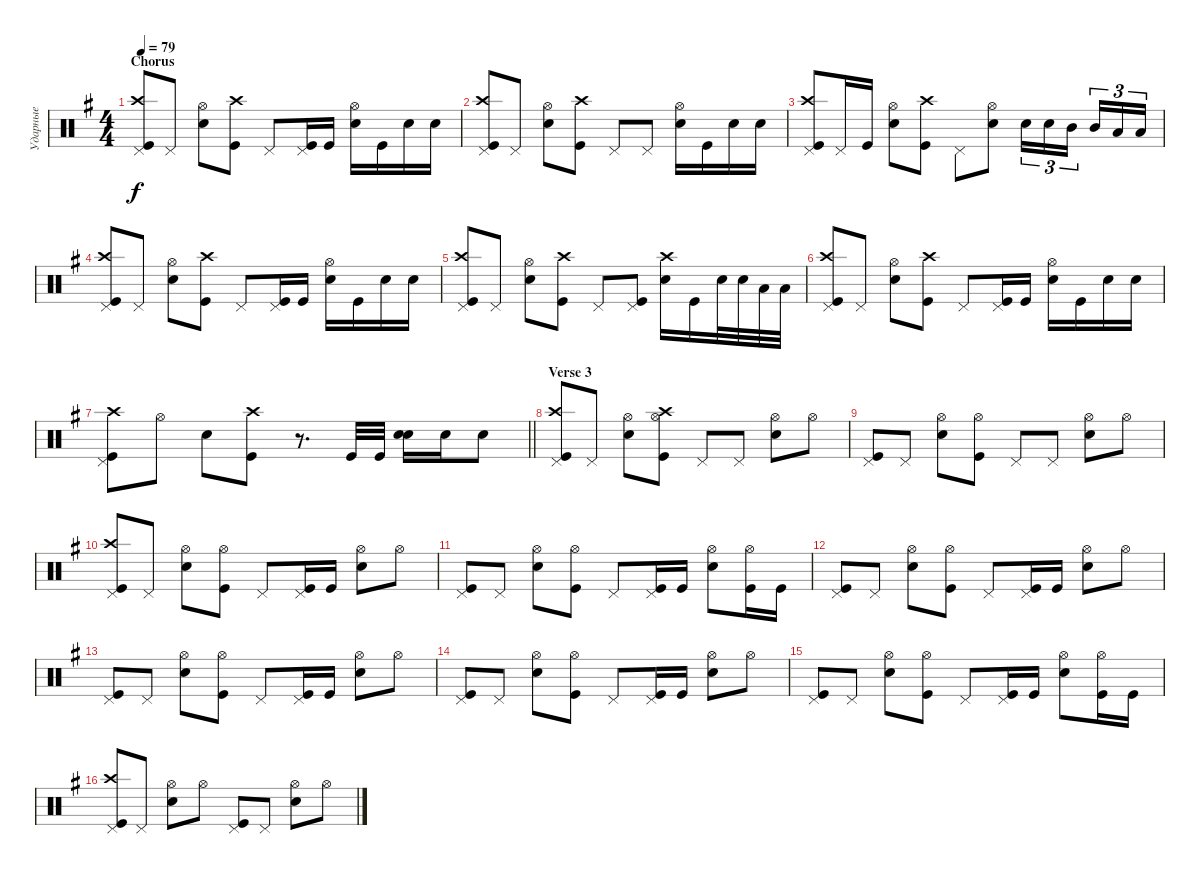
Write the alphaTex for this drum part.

\track ("Ударные" "Ударные") {instrument percussion}
\staff {score}
\articulation defaults
\ts (4 4)
\section ("" "Chorus")
\tempo 79
\clef neutral
\ks eminor
("Kick (hit)" "Crash high (hit)" "Pedal Hi-Hat (hit)").8{dy f} "Pedal Hi-Hat (hit)".8 ("Snare (hit) 2" "Hi-Hat (open)").8 ("Kick (hit)" "Crash high (hit)").8 "Pedal Hi-Hat (hit)".8 ("Kick (hit)" "Pedal Hi-Hat (hit)").16 "Kick (hit)".16 ("Snare (hit) 2" "Hi-Hat (open)").16 "Kick (hit)".16 "Snare (hit) 2".16 "Snare (hit) 2".16 |
("Kick (hit)" "Crash high (hit)" "Pedal Hi-Hat (hit)").8 "Pedal Hi-Hat (hit)".8 ("Snare (hit) 2" "Hi-Hat (open)").8 ("Kick (hit)" "Crash high (hit)").8 "Pedal Hi-Hat (hit)".8 "Pedal Hi-Hat (hit)".8 ("Snare (hit) 2" "Hi-Hat (open)").16 "Kick (hit)".16 "Snare (hit) 2".16 "Snare (hit) 2".16 |
("Kick (hit)" "Crash high (hit)" "Pedal Hi-Hat (hit)").8 "Pedal Hi-Hat (hit)".16 "Kick (hit)".16 ("Snare (hit) 2" "Hi-Hat (open)").8 ("Kick (hit)" "Crash high (hit)").8 "Pedal Hi-Hat (hit)".8 ("Snare (hit) 2" "Hi-Hat (open)").8 "Snare (hit) 2".16{tu (3 2)} "Snare (hit) 2".16{tu (3 2)} "Mid Tom (hit)".16{tu (3 2) beam splitsecondary} "Mid Tom (hit)".16{tu (3 2)} "Low Tom (hit)".16{tu (3 2)} "Low Tom (hit)".16{tu (3 2)} |
("Kick (hit)" "Crash high (hit)" "Pedal Hi-Hat (hit)").8 "Pedal Hi-Hat (hit)".8 ("Snare (hit) 2" "Hi-Hat (open)").8 ("Kick (hit)" "Crash high (hit)").8 "Pedal Hi-Hat (hit)".8 ("Kick (hit)" "Pedal Hi-Hat (hit)").16 "Kick (hit)".16 ("Snare (hit) 2" "Hi-Hat (open)").16 "Kick (hit)".16 "Snare (hit) 2".16 "Snare (hit) 2".16 |
("Kick (hit)" "Crash high (hit)" "Pedal Hi-Hat (hit)").8 "Pedal Hi-Hat (hit)".8 ("Snare (hit) 2" "Hi-Hat (open)").8 ("Kick (hit)" "Crash high (hit)").8 "Pedal Hi-Hat (hit)".8 ("Kick (hit)" "Pedal Hi-Hat (hit)").8 ("Snare (hit) 2" "Crash high (hit)").16 "Kick (hit)".16 "Snare (hit) 2".32 "Snare (hit) 2".32 "Low Tom (hit)".32 "Low Tom (hit)".32 |
("Kick (hit)" "Crash high (hit)" "Pedal Hi-Hat (hit)").8 "Pedal Hi-Hat (hit)".8 ("Snare (hit) 2" "Hi-Hat (open)").8 ("Kick (hit)" "Crash high (hit)").8 "Pedal Hi-Hat (hit)".8 ("Kick (hit)" "Pedal Hi-Hat (hit)").16 "Kick (hit)".16 ("Snare (hit) 2" "Hi-Hat (open)").16 "Kick (hit)".16 "Snare (hit) 2".16 "Snare (hit) 2".16 |
\barLineRight lightlight
("Kick (hit)" "Pedal Hi-Hat (hit)" "Crash high (hit)").8 "Hi-Hat (open)".8 "Snare (hit) 2".8 ("Kick (hit)" "Crash high (hit)").8 r.8{d} "Kick (hit)".32 "Kick (hit)".32 ("Snare (hit) 2" "Snare (hit) 2").16{bd 240} "Snare (hit) 2".16 "Snare (hit) 2".8 |
\section ("" "Verse 3")
("Kick (hit)" "Crash high (hit)" "Pedal Hi-Hat (hit)").8 "Pedal Hi-Hat (hit)".8 ("Hi-Hat (open)" "Snare (hit) 2").8 ("Kick (hit)" "Crash high (hit)" "Hi-Hat (open)").8 "Pedal Hi-Hat (hit)".8 "Pedal Hi-Hat (hit)".8 ("Snare (hit) 2" "Hi-Hat (open)").8 "Hi-Hat (open)".8 |
("Kick (hit)" "Pedal Hi-Hat (hit)").8 "Pedal Hi-Hat (hit)".8 ("Hi-Hat (open)" "Snare (hit) 2").8 ("Hi-Hat (open)" "Kick (hit)").8 "Pedal Hi-Hat (hit)".8 "Pedal Hi-Hat (hit)".8 ("Hi-Hat (open)" "Snare (hit) 2").8 "Hi-Hat (open)".8 |
("Kick (hit)" "Crash high (hit)" "Pedal Hi-Hat (hit)").8 "Pedal Hi-Hat (hit)".8 ("Hi-Hat (open)" "Snare (hit) 2").8 ("Kick (hit)" "Hi-Hat (open)").8 "Pedal Hi-Hat (hit)".8 ("Kick (hit)" "Pedal Hi-Hat (hit)").16 "Kick (hit)".16 ("Hi-Hat (open)" "Snare (hit) 2").8 "Hi-Hat (open)".8 |
("Kick (hit)" "Pedal Hi-Hat (hit)").8 "Pedal Hi-Hat (hit)".8 ("Hi-Hat (open)" "Snare (hit) 2").8 ("Hi-Hat (open)" "Kick (hit)").8 "Pedal Hi-Hat (hit)".8 ("Pedal Hi-Hat (hit)" "Kick (hit)").16 "Kick (hit)".16 ("Hi-Hat (open)" "Snare (hit) 2").8 ("Hi-Hat (open)" "Kick (hit)").16 "Kick (hit)".16 |
("Kick (hit)" "Pedal Hi-Hat (hit)").8 "Pedal Hi-Hat (hit)".8 ("Hi-Hat (open)" "Snare (hit) 2").8 ("Hi-Hat (open)" "Kick (hit)").8 "Pedal Hi-Hat (hit)".8 ("Pedal Hi-Hat (hit)" "Kick (hit)").16 "Kick (hit)".16 ("Hi-Hat (open)" "Snare (hit) 2").8 "Hi-Hat (open)".8 |
("Kick (hit)" "Pedal Hi-Hat (hit)").8 "Pedal Hi-Hat (hit)".8 ("Hi-Hat (open)" "Snare (hit) 2").8 ("Hi-Hat (open)" "Kick (hit)").8 "Pedal Hi-Hat (hit)".8 ("Pedal Hi-Hat (hit)" "Kick (hit)").16 "Kick (hit)".16 ("Hi-Hat (open)" "Snare (hit) 2").8 "Hi-Hat (open)".8 |
("Kick (hit)" "Pedal Hi-Hat (hit)").8 "Pedal Hi-Hat (hit)".8 ("Hi-Hat (open)" "Snare (hit) 2").8 ("Hi-Hat (open)" "Kick (hit)").8 "Pedal Hi-Hat (hit)".8 ("Pedal Hi-Hat (hit)" "Kick (hit)").16 "Kick (hit)".16 ("Hi-Hat (open)" "Snare (hit) 2").8 "Hi-Hat (open)".8 |
("Kick (hit)" "Pedal Hi-Hat (hit)").8 "Pedal Hi-Hat (hit)".8 ("Hi-Hat (open)" "Snare (hit) 2").8 ("Hi-Hat (open)" "Kick (hit)").8 "Pedal Hi-Hat (hit)".8 ("Pedal Hi-Hat (hit)" "Kick (hit)").16 "Kick (hit)".16 ("Hi-Hat (open)" "Snare (hit) 2").8 ("Hi-Hat (open)" "Kick (hit)").16 "Kick (hit)".16 |
("Kick (hit)" "Crash high (hit)" "Pedal Hi-Hat (hit)").8 "Pedal Hi-Hat (hit)".8 ("Hi-Hat (open)" "Snare (hit) 2").8 "Hi-Hat (open)".8 ("Kick (hit)" "Pedal Hi-Hat (hit)").8 "Pedal Hi-Hat (hit)".8 ("Hi-Hat (open)" "Snare (hit) 2").8 "Hi-Hat (open)".8
